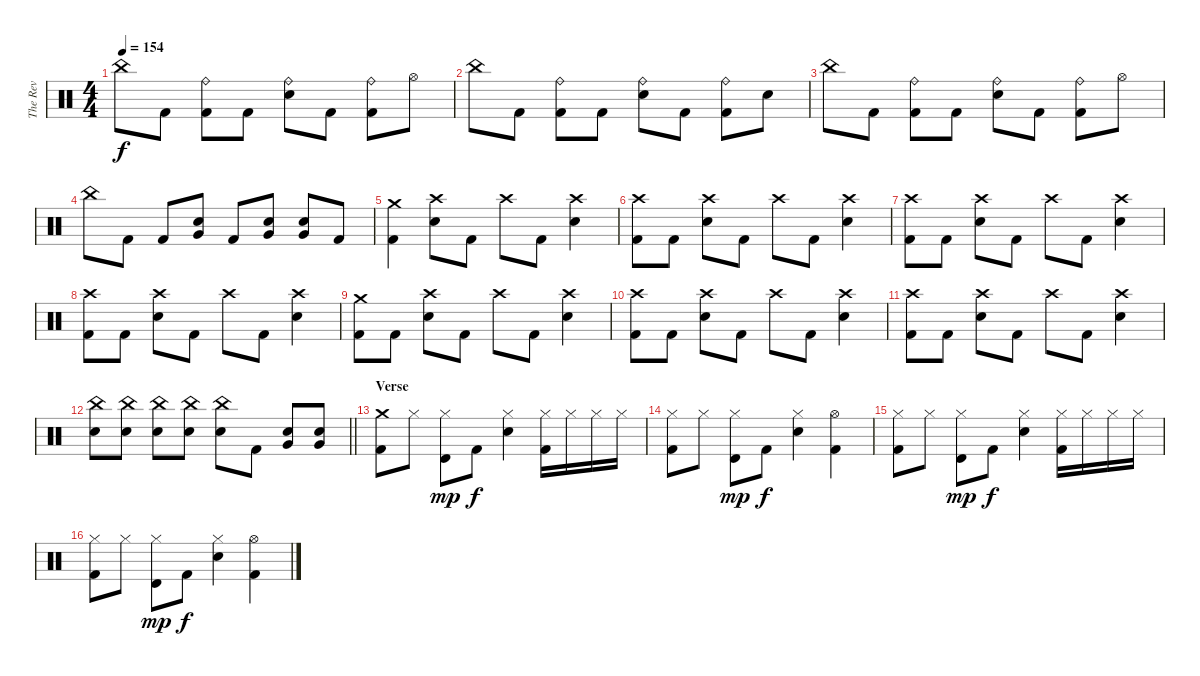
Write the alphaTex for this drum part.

\track ("The Rev" "The Rev") {instrument percussion}
\staff {score}
\articulation defaults
\ts (4 4)
\tempo 154
\clef neutral
\ks c "China (hit)".8{dy f} "Kick (hit) 2".8
("Ride (bell)" "Kick (hit) 2").8 "Kick (hit) 2".8 ("Ride (bell)" "Snare (hit) 2").8 "Kick (hit) 2".8 ("Ride (bell)" "Kick (hit) 2").8 "Hi-Hat (open)".8 |
"China (hit)".8 "Kick (hit) 2".8 ("Ride (bell)" "Kick (hit) 2").8 "Kick (hit) 2".8 ("Ride (bell)" "Snare (hit) 2").8 "Kick (hit) 2".8 ("Ride (bell)" "Kick (hit) 2").8 "Snare (hit) 2".8 |
"China (hit)".8 "Kick (hit) 2".8 ("Ride (bell)" "Kick (hit) 2").8 "Kick (hit) 2".8 ("Ride (bell)" "Snare (hit) 2").8 "Kick (hit) 2".8 ("Ride (bell)" "Kick (hit) 2").8 "Hi-Hat (open)".8 |
"China (hit)".8 "Kick (hit) 2".8 "Kick (hit) 2".8 ("Snare (hit) 2" "Very Low Tom (hit)").8 "Kick (hit) 2".8 ("Snare (hit) 2" "Very Low Tom (hit)").8 ("Snare (hit) 2" "Very Low Tom (hit)").8 "Kick (hit) 2".8 |
("Crash medium (hit)" "Kick (hit) 2").4 ("Crash high (hit)" "Snare (hit) 2").8 "Kick (hit) 2".8 "Crash high (hit)".8 "Kick (hit) 2".8 ("Crash high (hit)" "Snare (hit) 2").4 |
("Crash high (hit)" "Kick (hit) 2").8 "Kick (hit) 2".8 ("Crash high (hit)" "Snare (hit) 2").8 "Kick (hit) 2".8 "Crash high (hit)".8 "Kick (hit) 2".8 ("Crash high (hit)" "Snare (hit) 2").4 |
("Crash high (hit)" "Kick (hit) 2").8 "Kick (hit) 2".8 ("Crash high (hit)" "Snare (hit) 2").8 "Kick (hit) 2".8 "Crash high (hit)".8 "Kick (hit) 2".8 ("Crash high (hit)" "Snare (hit) 2").4 |
("Crash high (hit)" "Kick (hit) 2").8 "Kick (hit) 2".8 ("Crash high (hit)" "Snare (hit) 2").8 "Kick (hit) 2".8 "Crash high (hit)".8 "Kick (hit) 2".8 ("Crash high (hit)" "Snare (hit) 2").4 |
("Crash medium (hit)" "Kick (hit) 2").8 "Kick (hit) 2".8 ("Crash high (hit)" "Snare (hit) 2").8 "Kick (hit) 2".8 "Crash high (hit)".8 "Kick (hit) 2".8 ("Crash high (hit)" "Snare (hit) 2").4 |
("Crash high (hit)" "Kick (hit) 2").8 "Kick (hit) 2".8 ("Crash high (hit)" "Snare (hit) 2").8 "Kick (hit) 2".8 "Crash high (hit)".8 "Kick (hit) 2".8 ("Crash high (hit)" "Snare (hit) 2").4 |
("Crash high (hit)" "Kick (hit) 2").8 "Kick (hit) 2".8 ("Crash high (hit)" "Snare (hit) 2").8 "Kick (hit) 2".8 "Crash high (hit)".8 "Kick (hit) 2".8 ("Crash high (hit)" "Snare (hit) 2").4 |
\barLineRight lightlight
("China (hit)" "Snare (hit) 2").8 ("China (hit)" "Snare (hit) 2").8 ("China (hit)" "Snare (hit) 2").8 ("China (hit)" "Snare (hit) 2").8 ("China (hit)" "Snare (hit) 2").8 "Kick (hit) 2".8 ("Snare (hit) 2" "Very Low Tom (hit)").8 ("Snare (hit) 2" "Very Low Tom (hit)").8 |
\section ("" "Verse")
("Crash medium (hit)" "Kick (hit) 2").8 "Hi-Hat (closed)".8 ("Hi-Hat (closed)" "Timbale high (hit)").8{dy mp} "Kick (hit) 2".8{dy f} ("Hi-Hat (closed)" "Snare (hit) 2").4 ("Hi-Hat (closed)" "Kick (hit) 2").16 "Hi-Hat (closed)".16 "Hi-Hat (closed)".16 "Hi-Hat (closed)".16 |
("Hi-Hat (closed)" "Kick (hit) 2").8 "Hi-Hat (closed)".8 ("Hi-Hat (closed)" "Timbale high (hit)").8{dy mp} "Kick (hit) 2".8{dy f} ("Hi-Hat (closed)" "Snare (hit) 2").4 ("Hi-Hat (open)" "Kick (hit) 2").4 |
("Hi-Hat (closed)" "Kick (hit) 2").8 "Hi-Hat (closed)".8 ("Hi-Hat (closed)" "Timbale high (hit)").8{dy mp} "Kick (hit) 2".8{dy f} ("Hi-Hat (closed)" "Snare (hit) 2").4 ("Hi-Hat (closed)" "Kick (hit) 2").16 "Hi-Hat (closed)".16 "Hi-Hat (closed)".16 "Hi-Hat (closed)".16 |
("Hi-Hat (closed)" "Kick (hit) 2").8 "Hi-Hat (closed)".8 ("Hi-Hat (closed)" "Timbale high (hit)").8{dy mp} "Kick (hit) 2".8{dy f} ("Hi-Hat (closed)" "Snare (hit) 2").4 ("Hi-Hat (open)" "Kick (hit) 2").4
